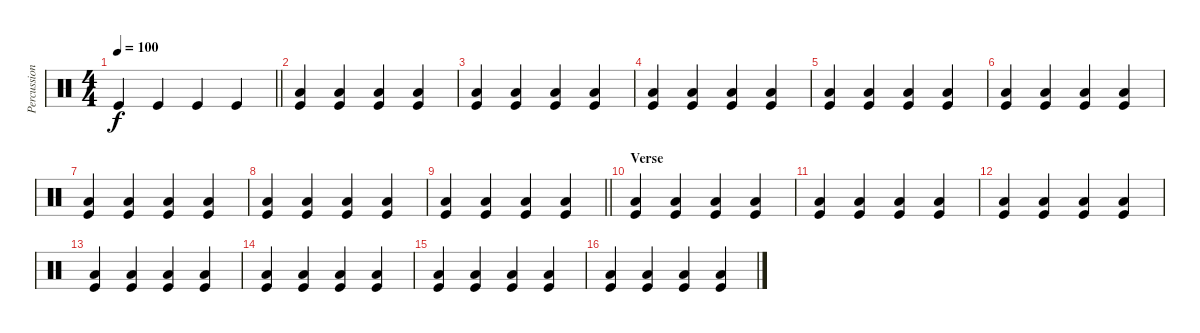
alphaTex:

\track ("Percussion" "Percussion") {instrument percussion}
\staff {score}
\articulation defaults
\ts (4 4)
\tempo 100
\clef neutral
\barLineRight lightlight
\ks c "Kick (hit)".4{dy f} "Kick (hit)".4 "Kick (hit)".4 "Kick (hit)".4
|
("Kick (hit)" "Low Floor Tom (hit)").4 ("Kick (hit)" "Low Floor Tom (hit)").4 ("Kick (hit)" "Low Floor Tom (hit)").4 ("Kick (hit)" "Low Floor Tom (hit)").4 |
("Kick (hit)" "Low Floor Tom (hit)").4 ("Kick (hit)" "Low Floor Tom (hit)").4 ("Kick (hit)" "Low Floor Tom (hit)").4 ("Kick (hit)" "Low Floor Tom (hit)").4 |
("Kick (hit)" "Low Floor Tom (hit)").4 ("Kick (hit)" "Low Floor Tom (hit)").4 ("Kick (hit)" "Low Floor Tom (hit)").4 ("Kick (hit)" "Low Floor Tom (hit)").4 |
("Kick (hit)" "Low Floor Tom (hit)").4 ("Kick (hit)" "Low Floor Tom (hit)").4 ("Kick (hit)" "Low Floor Tom (hit)").4 ("Kick (hit)" "Low Floor Tom (hit)").4 |
("Kick (hit)" "Low Floor Tom (hit)").4 ("Kick (hit)" "Low Floor Tom (hit)").4 ("Kick (hit)" "Low Floor Tom (hit)").4 ("Kick (hit)" "Low Floor Tom (hit)").4 |
("Kick (hit)" "Low Floor Tom (hit)").4 ("Kick (hit)" "Low Floor Tom (hit)").4 ("Kick (hit)" "Low Floor Tom (hit)").4 ("Kick (hit)" "Low Floor Tom (hit)").4 |
("Kick (hit)" "Low Floor Tom (hit)").4 ("Kick (hit)" "Low Floor Tom (hit)").4 ("Kick (hit)" "Low Floor Tom (hit)").4 ("Kick (hit)" "Low Floor Tom (hit)").4 |
\barLineRight lightlight
("Kick (hit)" "Low Floor Tom (hit)").4 ("Kick (hit)" "Low Floor Tom (hit)").4 ("Kick (hit)" "Low Floor Tom (hit)").4 ("Kick (hit)" "Low Floor Tom (hit)").4 |
\section ("" "Verse")
("Kick (hit)" "Low Floor Tom (hit)").4 ("Kick (hit)" "Low Floor Tom (hit)").4 ("Kick (hit)" "Low Floor Tom (hit)").4 ("Kick (hit)" "Low Floor Tom (hit)").4 |
("Kick (hit)" "Low Floor Tom (hit)").4 ("Kick (hit)" "Low Floor Tom (hit)").4 ("Kick (hit)" "Low Floor Tom (hit)").4 ("Kick (hit)" "Low Floor Tom (hit)").4 |
("Kick (hit)" "Low Floor Tom (hit)").4 ("Kick (hit)" "Low Floor Tom (hit)").4 ("Kick (hit)" "Low Floor Tom (hit)").4 ("Kick (hit)" "Low Floor Tom (hit)").4 |
("Kick (hit)" "Low Floor Tom (hit)").4 ("Kick (hit)" "Low Floor Tom (hit)").4 ("Kick (hit)" "Low Floor Tom (hit)").4 ("Kick (hit)" "Low Floor Tom (hit)").4 |
("Kick (hit)" "Low Floor Tom (hit)").4 ("Kick (hit)" "Low Floor Tom (hit)").4 ("Kick (hit)" "Low Floor Tom (hit)").4 ("Kick (hit)" "Low Floor Tom (hit)").4 |
("Kick (hit)" "Low Floor Tom (hit)").4 ("Kick (hit)" "Low Floor Tom (hit)").4 ("Kick (hit)" "Low Floor Tom (hit)").4 ("Kick (hit)" "Low Floor Tom (hit)").4 |
("Kick (hit)" "Low Floor Tom (hit)").4 ("Kick (hit)" "Low Floor Tom (hit)").4 ("Kick (hit)" "Low Floor Tom (hit)").4 ("Kick (hit)" "Low Floor Tom (hit)").4
